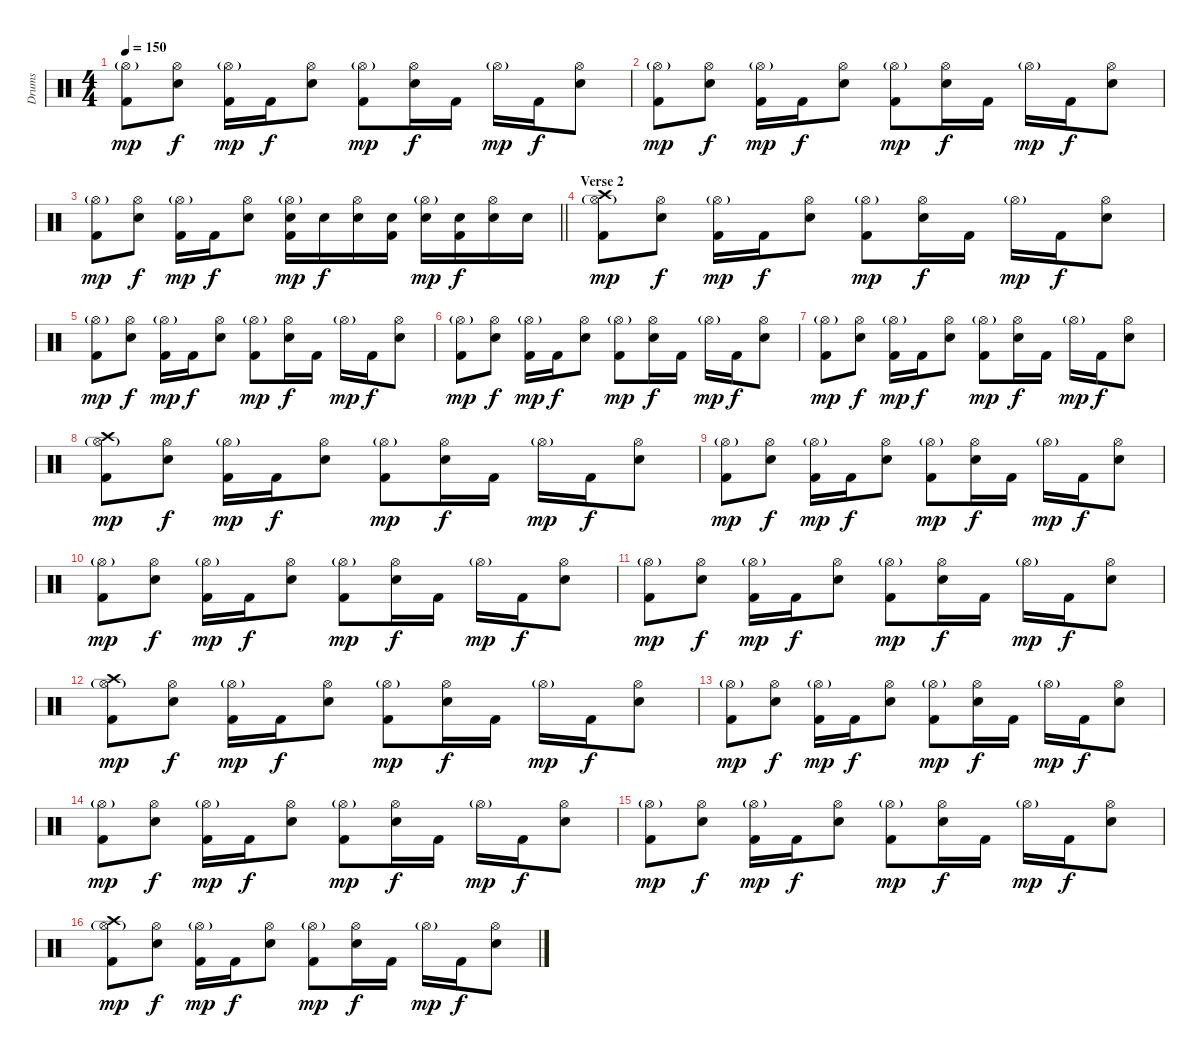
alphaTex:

\track ("Drums" "Drums") {instrument percussion}
\staff {score}
\articulation defaults
\ts (4 4)
\tempo 150
\clef neutral
\ks c
("Hi-Hat (open)"{g} "Kick (hit) 2").8{dy mp} ("Hi-Hat (open)" "Snare (hit) 2").8{dy f} ("Hi-Hat (open)"{g} "Kick (hit) 2").16{dy mp} "Kick (hit) 2".16{dy f} ("Hi-Hat (open)" "Snare (hit) 2").8 ("Hi-Hat (open)"{g} "Kick (hit) 2").8{dy mp} ("Hi-Hat (open)" "Snare (hit) 2").16{dy f} "Kick (hit) 2".16 "Hi-Hat (open)"{g}.16{dy mp} "Kick (hit) 2".16{dy f} ("Hi-Hat (open)" "Snare (hit) 2").8 |
("Hi-Hat (open)"{g} "Kick (hit) 2").8{dy mp} ("Hi-Hat (open)" "Snare (hit) 2").8{dy f} ("Hi-Hat (open)"{g} "Kick (hit) 2").16{dy mp} "Kick (hit) 2".16{dy f} ("Hi-Hat (open)" "Snare (hit) 2").8 ("Hi-Hat (open)"{g} "Kick (hit) 2").8{dy mp} ("Hi-Hat (open)" "Snare (hit) 2").16{dy f} "Kick (hit) 2".16 "Hi-Hat (open)"{g}.16{dy mp} "Kick (hit) 2".16{dy f} ("Hi-Hat (open)" "Snare (hit) 2").8 |
\barLineRight lightlight
("Hi-Hat (open)"{g} "Kick (hit) 2").8{dy mp} ("Hi-Hat (open)" "Snare (hit) 2").8{dy f} ("Hi-Hat (open)"{g} "Kick (hit) 2").16{dy mp} "Kick (hit) 2".16{dy f} ("Hi-Hat (open)" "Snare (hit) 2").8 ("Hi-Hat (open)"{g} "Snare (hit) 2" "Kick (hit) 2").16{dy mp} "Snare (hit) 2".16{dy f} ("Hi-Hat (open)" "Snare (hit) 2").16 ("Snare (hit) 2" "Kick (hit) 2").16 ("Hi-Hat (open)"{g} "Snare (hit) 2").16{dy mp} ("Snare (hit) 2" "Kick (hit) 2").16{dy f} ("Hi-Hat (open)" "Snare (hit) 2").16 "Snare (hit) 2".16 |
\section ("" "Verse 2")
("Crash high (hit)" "Hi-Hat (open)"{g} "Kick (hit) 2").8{dy mp} ("Hi-Hat (open)" "Snare (hit) 2").8{dy f} ("Hi-Hat (open)"{g} "Kick (hit) 2").16{dy mp} "Kick (hit) 2".16{dy f} ("Hi-Hat (open)" "Snare (hit) 2").8 ("Hi-Hat (open)"{g} "Kick (hit) 2").8{dy mp} ("Hi-Hat (open)" "Snare (hit) 2").16{dy f} "Kick (hit) 2".16 "Hi-Hat (open)"{g}.16{dy mp} "Kick (hit) 2".16{dy f} ("Hi-Hat (open)" "Snare (hit) 2").8 |
("Hi-Hat (open)"{g} "Kick (hit) 2").8{dy mp} ("Hi-Hat (open)" "Snare (hit) 2").8{dy f} ("Hi-Hat (open)"{g} "Kick (hit) 2").16{dy mp} "Kick (hit) 2".16{dy f} ("Hi-Hat (open)" "Snare (hit) 2").8 ("Hi-Hat (open)"{g} "Kick (hit) 2").8{dy mp} ("Hi-Hat (open)" "Snare (hit) 2").16{dy f} "Kick (hit) 2".16 "Hi-Hat (open)"{g}.16{dy mp} "Kick (hit) 2".16{dy f} ("Hi-Hat (open)" "Snare (hit) 2").8 |
("Hi-Hat (open)"{g} "Kick (hit) 2").8{dy mp} ("Hi-Hat (open)" "Snare (hit) 2").8{dy f} ("Hi-Hat (open)"{g} "Kick (hit) 2").16{dy mp} "Kick (hit) 2".16{dy f} ("Hi-Hat (open)" "Snare (hit) 2").8 ("Hi-Hat (open)"{g} "Kick (hit) 2").8{dy mp} ("Hi-Hat (open)" "Snare (hit) 2").16{dy f} "Kick (hit) 2".16 "Hi-Hat (open)"{g}.16{dy mp} "Kick (hit) 2".16{dy f} ("Hi-Hat (open)" "Snare (hit) 2").8 |
("Hi-Hat (open)"{g} "Kick (hit) 2").8{dy mp} ("Hi-Hat (open)" "Snare (hit) 2").8{dy f} ("Hi-Hat (open)"{g} "Kick (hit) 2").16{dy mp} "Kick (hit) 2".16{dy f} ("Hi-Hat (open)" "Snare (hit) 2").8 ("Hi-Hat (open)"{g} "Kick (hit) 2").8{dy mp} ("Hi-Hat (open)" "Snare (hit) 2").16{dy f} "Kick (hit) 2".16 "Hi-Hat (open)"{g}.16{dy mp} "Kick (hit) 2".16{dy f} ("Hi-Hat (open)" "Snare (hit) 2").8 |
("Crash high (hit)" "Hi-Hat (open)"{g} "Kick (hit) 2").8{dy mp} ("Hi-Hat (open)" "Snare (hit) 2").8{dy f} ("Hi-Hat (open)"{g} "Kick (hit) 2").16{dy mp} "Kick (hit) 2".16{dy f} ("Hi-Hat (open)" "Snare (hit) 2").8 ("Hi-Hat (open)"{g} "Kick (hit) 2").8{dy mp} ("Hi-Hat (open)" "Snare (hit) 2").16{dy f} "Kick (hit) 2".16 "Hi-Hat (open)"{g}.16{dy mp} "Kick (hit) 2".16{dy f} ("Hi-Hat (open)" "Snare (hit) 2").8 |
("Hi-Hat (open)"{g} "Kick (hit) 2").8{dy mp} ("Hi-Hat (open)" "Snare (hit) 2").8{dy f} ("Hi-Hat (open)"{g} "Kick (hit) 2").16{dy mp} "Kick (hit) 2".16{dy f} ("Hi-Hat (open)" "Snare (hit) 2").8 ("Hi-Hat (open)"{g} "Kick (hit) 2").8{dy mp} ("Hi-Hat (open)" "Snare (hit) 2").16{dy f} "Kick (hit) 2".16 "Hi-Hat (open)"{g}.16{dy mp} "Kick (hit) 2".16{dy f} ("Hi-Hat (open)" "Snare (hit) 2").8 |
("Hi-Hat (open)"{g} "Kick (hit) 2").8{dy mp} ("Hi-Hat (open)" "Snare (hit) 2").8{dy f} ("Hi-Hat (open)"{g} "Kick (hit) 2").16{dy mp} "Kick (hit) 2".16{dy f} ("Hi-Hat (open)" "Snare (hit) 2").8 ("Hi-Hat (open)"{g} "Kick (hit) 2").8{dy mp} ("Hi-Hat (open)" "Snare (hit) 2").16{dy f} "Kick (hit) 2".16 "Hi-Hat (open)"{g}.16{dy mp} "Kick (hit) 2".16{dy f} ("Hi-Hat (open)" "Snare (hit) 2").8 |
("Hi-Hat (open)"{g} "Kick (hit) 2").8{dy mp} ("Hi-Hat (open)" "Snare (hit) 2").8{dy f} ("Hi-Hat (open)"{g} "Kick (hit) 2").16{dy mp} "Kick (hit) 2".16{dy f} ("Hi-Hat (open)" "Snare (hit) 2").8 ("Hi-Hat (open)"{g} "Kick (hit) 2").8{dy mp} ("Hi-Hat (open)" "Snare (hit) 2").16{dy f} "Kick (hit) 2".16 "Hi-Hat (open)"{g}.16{dy mp} "Kick (hit) 2".16{dy f} ("Hi-Hat (open)" "Snare (hit) 2").8 |
("Crash high (hit)" "Hi-Hat (open)"{g} "Kick (hit) 2").8{dy mp} ("Hi-Hat (open)" "Snare (hit) 2").8{dy f} ("Hi-Hat (open)"{g} "Kick (hit) 2").16{dy mp} "Kick (hit) 2".16{dy f} ("Hi-Hat (open)" "Snare (hit) 2").8 ("Hi-Hat (open)"{g} "Kick (hit) 2").8{dy mp} ("Hi-Hat (open)" "Snare (hit) 2").16{dy f} "Kick (hit) 2".16 "Hi-Hat (open)"{g}.16{dy mp} "Kick (hit) 2".16{dy f} ("Hi-Hat (open)" "Snare (hit) 2").8 |
("Hi-Hat (open)"{g} "Kick (hit) 2").8{dy mp} ("Hi-Hat (open)" "Snare (hit) 2").8{dy f} ("Hi-Hat (open)"{g} "Kick (hit) 2").16{dy mp} "Kick (hit) 2".16{dy f} ("Hi-Hat (open)" "Snare (hit) 2").8 ("Hi-Hat (open)"{g} "Kick (hit) 2").8{dy mp} ("Hi-Hat (open)" "Snare (hit) 2").16{dy f} "Kick (hit) 2".16 "Hi-Hat (open)"{g}.16{dy mp} "Kick (hit) 2".16{dy f} ("Hi-Hat (open)" "Snare (hit) 2").8 |
("Hi-Hat (open)"{g} "Kick (hit) 2").8{dy mp} ("Hi-Hat (open)" "Snare (hit) 2").8{dy f} ("Hi-Hat (open)"{g} "Kick (hit) 2").16{dy mp} "Kick (hit) 2".16{dy f} ("Hi-Hat (open)" "Snare (hit) 2").8 ("Hi-Hat (open)"{g} "Kick (hit) 2").8{dy mp} ("Hi-Hat (open)" "Snare (hit) 2").16{dy f} "Kick (hit) 2".16 "Hi-Hat (open)"{g}.16{dy mp} "Kick (hit) 2".16{dy f} ("Hi-Hat (open)" "Snare (hit) 2").8 |
("Hi-Hat (open)"{g} "Kick (hit) 2").8{dy mp} ("Hi-Hat (open)" "Snare (hit) 2").8{dy f} ("Hi-Hat (open)"{g} "Kick (hit) 2").16{dy mp} "Kick (hit) 2".16{dy f} ("Hi-Hat (open)" "Snare (hit) 2").8 ("Hi-Hat (open)"{g} "Kick (hit) 2").8{dy mp} ("Hi-Hat (open)" "Snare (hit) 2").16{dy f} "Kick (hit) 2".16 "Hi-Hat (open)"{g}.16{dy mp} "Kick (hit) 2".16{dy f} ("Hi-Hat (open)" "Snare (hit) 2").8 |
("Crash high (hit)" "Hi-Hat (open)"{g} "Kick (hit) 2").8{dy mp} ("Hi-Hat (open)" "Snare (hit) 2").8{dy f} ("Hi-Hat (open)"{g} "Kick (hit) 2").16{dy mp} "Kick (hit) 2".16{dy f} ("Hi-Hat (open)" "Snare (hit) 2").8 ("Hi-Hat (open)"{g} "Kick (hit) 2").8{dy mp} ("Hi-Hat (open)" "Snare (hit) 2").16{dy f} "Kick (hit) 2".16 "Hi-Hat (open)"{g}.16{dy mp} "Kick (hit) 2".16{dy f} ("Hi-Hat (open)" "Snare (hit) 2").8
